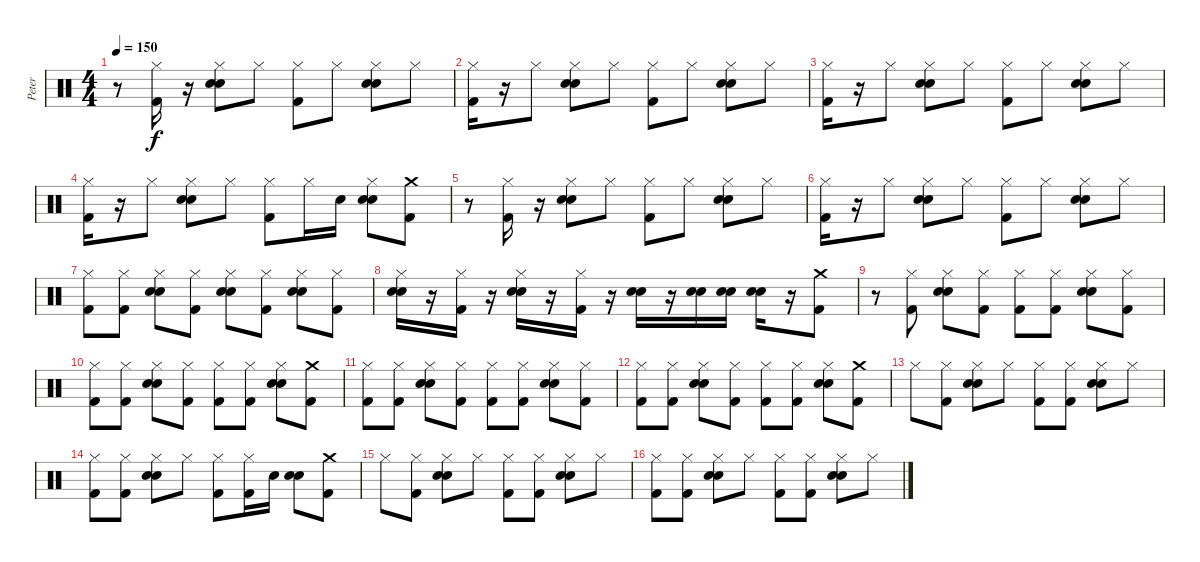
\track ("Peter" "Peter") {instrument percussion}
\staff {score}
\articulation defaults
\ts (4 4)
\tempo 150
\clef neutral
\ks c
r.8{dy f} ("Hi-Hat (closed)" "Kick (hit) 2").16 r.16 ("Hi-Hat (closed)" "Electric Snare (hit)" "Snare (hit) 2").8 "Hi-Hat (closed)".8 ("Hi-Hat (closed)" "Kick (hit) 2").8 "Hi-Hat (closed)".8 ("Hi-Hat (closed)" "Electric Snare (hit)" "Snare (hit) 2").8 "Hi-Hat (closed)".8 |
("Hi-Hat (closed)" "Kick (hit) 2").16 r.16 "Hi-Hat (closed)".8 ("Electric Snare (hit)" "Snare (hit) 2" "Hi-Hat (closed)").8 "Hi-Hat (closed)".8 ("Kick (hit) 2" "Hi-Hat (closed)").8 "Hi-Hat (closed)".8 ("Electric Snare (hit)" "Snare (hit) 2" "Hi-Hat (closed)").8 "Hi-Hat (closed)".8 |
("Hi-Hat (closed)" "Kick (hit) 2").16 r.16 "Hi-Hat (closed)".8 ("Electric Snare (hit)" "Hi-Hat (closed)" "Snare (hit) 2").8 "Hi-Hat (closed)".8 ("Hi-Hat (closed)" "Kick (hit) 2").8 "Hi-Hat (closed)".8 ("Hi-Hat (closed)" "Electric Snare (hit)" "Snare (hit) 2").8 "Hi-Hat (closed)".8 |
("Kick (hit) 2" "Hi-Hat (closed)").16 r.16 "Hi-Hat (closed)".8 ("Electric Snare (hit)" "Hi-Hat (closed)" "Snare (hit) 2").8 "Hi-Hat (closed)".8 ("Hi-Hat (closed)" "Kick (hit) 2").8 "Hi-Hat (closed)".16 "Snare (hit) 2".16 ("Hi-Hat (closed)" "Electric Snare (hit)" "Snare (hit) 2").8 ("Kick (hit) 2" "Crash medium (hit)").8 |
r.8 ("Hi-Hat (closed)" "Kick (hit) 2").16 r.16 ("Hi-Hat (closed)" "Electric Snare (hit)" "Snare (hit) 2").8 "Hi-Hat (closed)".8 ("Hi-Hat (closed)" "Kick (hit) 2").8 "Hi-Hat (closed)".8 ("Hi-Hat (closed)" "Electric Snare (hit)" "Snare (hit) 2").8 "Hi-Hat (closed)".8 |
("Hi-Hat (closed)" "Kick (hit) 2").16 r.16 "Hi-Hat (closed)".8 ("Electric Snare (hit)" "Snare (hit) 2" "Hi-Hat (closed)").8 "Hi-Hat (closed)".8 ("Kick (hit) 2" "Hi-Hat (closed)").8 "Hi-Hat (closed)".8 ("Electric Snare (hit)" "Snare (hit) 2" "Hi-Hat (closed)").8 "Hi-Hat (closed)".8 |
("Hi-Hat (closed)" "Kick (hit) 2").8 ("Hi-Hat (closed)" "Kick (hit) 2").8 ("Hi-Hat (closed)" "Electric Snare (hit)" "Snare (hit) 2").8 ("Hi-Hat (closed)" "Kick (hit) 2").8 ("Hi-Hat (closed)" "Electric Snare (hit)" "Snare (hit) 2").8 ("Hi-Hat (closed)" "Kick (hit) 2").8 ("Hi-Hat (closed)" "Electric Snare (hit)" "Snare (hit) 2").8 ("Hi-Hat (closed)" "Kick (hit) 2").8 |
("Hi-Hat (closed)" "Snare (hit) 2" "Electric Snare (hit)").16 r.16 ("Hi-Hat (closed)" "Kick (hit) 2").16 r.16 ("Hi-Hat (closed)" "Snare (hit) 2" "Electric Snare (hit)").16 r.16 ("Hi-Hat (closed)" "Kick (hit) 2").16 r.16 ("Snare (hit) 2" "Electric Snare (hit)").16 r.16 ("Snare (hit) 2" "Electric Snare (hit)").16 ("Snare (hit) 2" "Electric Snare (hit)").16 ("Snare (hit) 2" "Electric Snare (hit)").16 r.16 ("Crash medium (hit)" "Kick (hit) 2").8 |
r.8 ("Hi-Hat (closed)" "Kick (hit) 2").8 ("Hi-Hat (closed)" "Electric Snare (hit)" "Snare (hit) 2").8 ("Hi-Hat (closed)" "Kick (hit) 2").8 ("Hi-Hat (closed)" "Kick (hit) 2").8 ("Hi-Hat (closed)" "Kick (hit) 2").8 ("Hi-Hat (closed)" "Electric Snare (hit)" "Snare (hit) 2").8 ("Hi-Hat (closed)" "Kick (hit) 2").8 |
("Hi-Hat (closed)" "Kick (hit) 2").8 ("Hi-Hat (closed)" "Kick (hit) 2").8 ("Hi-Hat (closed)" "Electric Snare (hit)" "Snare (hit) 2").8 ("Hi-Hat (closed)" "Kick (hit) 2").8 ("Hi-Hat (closed)" "Kick (hit) 2").8 ("Hi-Hat (closed)" "Kick (hit) 2").8 ("Hi-Hat (closed)" "Snare (hit) 2" "Electric Snare (hit)").8 ("Crash medium (hit)" "Kick (hit) 2").8 |
("Hi-Hat (closed)" "Kick (hit) 2").8 ("Hi-Hat (closed)" "Kick (hit) 2").8 ("Hi-Hat (closed)" "Electric Snare (hit)" "Snare (hit) 2").8 ("Hi-Hat (closed)" "Kick (hit) 2").8 ("Hi-Hat (closed)" "Kick (hit) 2").8 ("Hi-Hat (closed)" "Kick (hit) 2").8 ("Snare (hit) 2" "Hi-Hat (closed)" "Electric Snare (hit)").8 ("Hi-Hat (closed)" "Kick (hit) 2").8 |
("Hi-Hat (closed)" "Kick (hit) 2").8 ("Hi-Hat (closed)" "Kick (hit) 2").8 ("Hi-Hat (closed)" "Electric Snare (hit)" "Snare (hit) 2").8 ("Hi-Hat (closed)" "Kick (hit) 2").8 ("Hi-Hat (closed)" "Kick (hit) 2").8 ("Hi-Hat (closed)" "Kick (hit) 2").8 ("Hi-Hat (closed)" "Electric Snare (hit)" "Snare (hit) 2").8 ("Crash medium (hit)" "Kick (hit) 2").8 |
"Hi-Hat (closed)".8 ("Hi-Hat (closed)" "Kick (hit) 2").8 ("Hi-Hat (closed)" "Snare (hit) 2" "Electric Snare (hit)").8 "Hi-Hat (closed)".8 ("Hi-Hat (closed)" "Kick (hit) 2").8 ("Hi-Hat (closed)" "Kick (hit) 2").8 ("Hi-Hat (closed)" "Snare (hit) 2" "Electric Snare (hit)").8 "Hi-Hat (closed)".8 |
("Hi-Hat (closed)" "Kick (hit) 2").8 ("Hi-Hat (closed)" "Kick (hit) 2").8 ("Hi-Hat (closed)" "Electric Snare (hit)" "Snare (hit) 2").8 "Hi-Hat (closed)".8 ("Hi-Hat (closed)" "Kick (hit) 2").8 ("Hi-Hat (closed)" "Kick (hit) 2").16 "Snare (hit) 2".16 ("Electric Snare (hit)" "Snare (hit) 2").8 ("Crash medium (hit)" "Kick (hit) 2").8 |
"Hi-Hat (closed)".8 ("Hi-Hat (closed)" "Kick (hit) 2").8 ("Hi-Hat (closed)" "Snare (hit) 2" "Electric Snare (hit)").8 "Hi-Hat (closed)".8 ("Hi-Hat (closed)" "Kick (hit) 2").8 ("Hi-Hat (closed)" "Kick (hit) 2").8 ("Hi-Hat (closed)" "Snare (hit) 2" "Electric Snare (hit)").8 "Hi-Hat (closed)".8 |
("Kick (hit) 2" "Hi-Hat (closed)").8 ("Hi-Hat (closed)" "Kick (hit) 2").8 ("Hi-Hat (closed)" "Snare (hit) 2" "Electric Snare (hit)").8 "Hi-Hat (closed)".8 ("Hi-Hat (closed)" "Kick (hit) 2").8 ("Hi-Hat (closed)" "Kick (hit) 2").8 ("Hi-Hat (closed)" "Snare (hit) 2" "Electric Snare (hit)").8 "Hi-Hat (closed)".8
